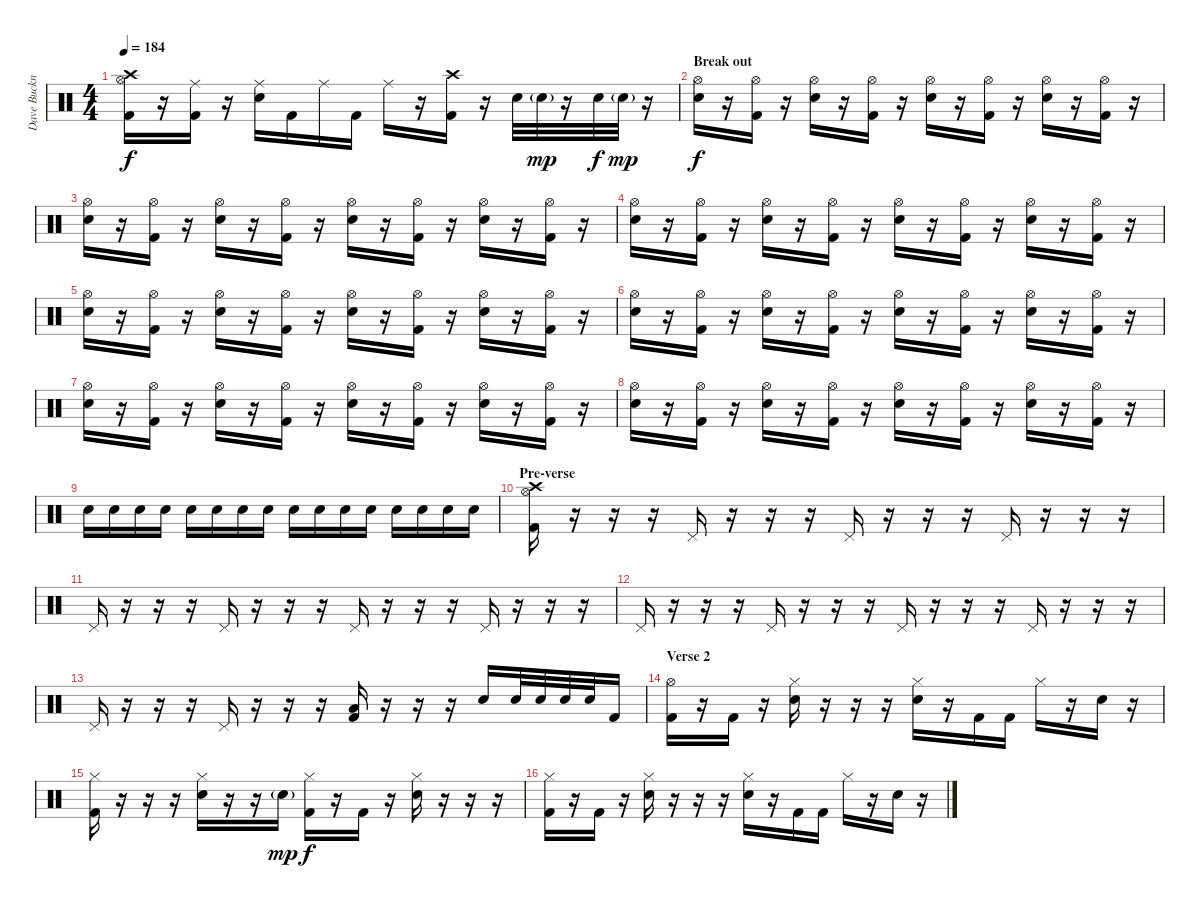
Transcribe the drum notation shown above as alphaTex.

\track ("Dave Buckner" "Dave Buckn") {instrument percussion}
\staff {score}
\articulation defaults
\ts (4 4)
\tempo 184
\clef neutral
\ks c
("Crash high (hit)" "Hi-Hat (open)" "Kick (hit) 2").16{dy f} r.16 ("Ride (middle)" "Kick (hit) 2").16 r.16 ("Ride (middle)" "Snare (hit) 2").16 "Kick (hit) 2".16 "Ride (middle)".16 "Kick (hit) 2".16 "Ride (middle)".16 r.16 ("Crash high (hit)" "Kick (hit) 2").16 r.16 "Snare (hit) 2".32 "Snare (hit) 2"{g}.32{dy mp} r.16 "Snare (hit) 2".32{dy f} "Snare (hit) 2"{g}.32{dy mp} r.16 |
\section ("" "Break out")
("Hi-Hat (open)" "Snare (hit) 2").16{dy f} r.16 ("Hi-Hat (open)" "Kick (hit) 2").16 r.16 ("Hi-Hat (open)" "Snare (hit) 2").16 r.16 ("Hi-Hat (open)" "Kick (hit) 2").16 r.16 ("Hi-Hat (open)" "Snare (hit) 2").16 r.16 ("Hi-Hat (open)" "Kick (hit) 2").16 r.16 ("Hi-Hat (open)" "Snare (hit) 2").16 r.16 ("Hi-Hat (open)" "Kick (hit) 2").16 r.16 |
("Hi-Hat (open)" "Snare (hit) 2").16 r.16 ("Hi-Hat (open)" "Kick (hit) 2").16 r.16 ("Hi-Hat (open)" "Snare (hit) 2").16 r.16 ("Hi-Hat (open)" "Kick (hit) 2").16 r.16 ("Hi-Hat (open)" "Snare (hit) 2").16 r.16 ("Hi-Hat (open)" "Kick (hit) 2").16 r.16 ("Hi-Hat (open)" "Snare (hit) 2").16 r.16 ("Hi-Hat (open)" "Kick (hit) 2").16 r.16 |
("Hi-Hat (open)" "Snare (hit) 2").16 r.16 ("Hi-Hat (open)" "Kick (hit) 2").16 r.16 ("Hi-Hat (open)" "Snare (hit) 2").16 r.16 ("Hi-Hat (open)" "Kick (hit) 2").16 r.16 ("Hi-Hat (open)" "Snare (hit) 2").16 r.16 ("Hi-Hat (open)" "Kick (hit) 2").16 r.16 ("Hi-Hat (open)" "Snare (hit) 2").16 r.16 ("Hi-Hat (open)" "Kick (hit) 2").16 r.16 |
("Hi-Hat (open)" "Snare (hit) 2").16 r.16 ("Hi-Hat (open)" "Kick (hit) 2").16 r.16 ("Hi-Hat (open)" "Snare (hit) 2").16 r.16 ("Hi-Hat (open)" "Kick (hit) 2").16 r.16 ("Hi-Hat (open)" "Snare (hit) 2").16 r.16 ("Hi-Hat (open)" "Kick (hit) 2").16 r.16 ("Hi-Hat (open)" "Snare (hit) 2").16 r.16 ("Hi-Hat (open)" "Kick (hit) 2").16 r.16 |
("Hi-Hat (open)" "Snare (hit) 2").16 r.16 ("Hi-Hat (open)" "Kick (hit) 2").16 r.16 ("Hi-Hat (open)" "Snare (hit) 2").16 r.16 ("Hi-Hat (open)" "Kick (hit) 2").16 r.16 ("Hi-Hat (open)" "Snare (hit) 2").16 r.16 ("Hi-Hat (open)" "Kick (hit) 2").16 r.16 ("Hi-Hat (open)" "Snare (hit) 2").16 r.16 ("Hi-Hat (open)" "Kick (hit) 2").16 r.16 |
("Hi-Hat (open)" "Snare (hit) 2").16 r.16 ("Hi-Hat (open)" "Kick (hit) 2").16 r.16 ("Hi-Hat (open)" "Snare (hit) 2").16 r.16 ("Hi-Hat (open)" "Kick (hit) 2").16 r.16 ("Hi-Hat (open)" "Snare (hit) 2").16 r.16 ("Hi-Hat (open)" "Kick (hit) 2").16 r.16 ("Hi-Hat (open)" "Snare (hit) 2").16 r.16 ("Hi-Hat (open)" "Kick (hit) 2").16 r.16 |
("Hi-Hat (open)" "Snare (hit) 2").16 r.16 ("Hi-Hat (open)" "Kick (hit) 2").16 r.16 ("Hi-Hat (open)" "Snare (hit) 2").16 r.16 ("Hi-Hat (open)" "Kick (hit) 2").16 r.16 ("Hi-Hat (open)" "Snare (hit) 2").16 r.16 ("Hi-Hat (open)" "Kick (hit) 2").16 r.16 ("Hi-Hat (open)" "Snare (hit) 2").16 r.16 ("Hi-Hat (open)" "Kick (hit) 2").16 r.16 |
"Snare (hit) 2".16 "Snare (hit) 2".16 "Snare (hit) 2".16 "Snare (hit) 2".16 "Snare (hit) 2".16 "Snare (hit) 2".16 "Snare (hit) 2".16 "Snare (hit) 2".16 "Snare (hit) 2".16 "Snare (hit) 2".16 "Snare (hit) 2".16 "Snare (hit) 2".16 "Snare (hit) 2".16 "Snare (hit) 2".16 "Snare (hit) 2".16 "Snare (hit) 2".16 |
\section ("" "Pre-verse")
("Crash high (hit)" "Hi-Hat (open)" "Kick (hit) 2").16 r.16 r.16 r.16 "Pedal Hi-Hat (hit)".16 r.16 r.16 r.16 "Pedal Hi-Hat (hit)".16 r.16 r.16 r.16 "Pedal Hi-Hat (hit)".16 r.16 r.16 r.16 |
"Pedal Hi-Hat (hit)".16 r.16 r.16 r.16 "Pedal Hi-Hat (hit)".16 r.16 r.16 r.16 "Pedal Hi-Hat (hit)".16 r.16 r.16 r.16 "Pedal Hi-Hat (hit)".16 r.16 r.16 r.16 |
"Pedal Hi-Hat (hit)".16 r.16 r.16 r.16 "Pedal Hi-Hat (hit)".16 r.16 r.16 r.16 "Pedal Hi-Hat (hit)".16 r.16 r.16 r.16 "Pedal Hi-Hat (hit)".16 r.16 r.16 r.16 |
"Pedal Hi-Hat (hit)".16 r.16 r.16 r.16 "Pedal Hi-Hat (hit)".16 r.16 r.16 r.16 ("Low Floor Tom (hit)" "Kick (hit) 2").16 r.16 r.16 r.16 "Snare (hit) 2".16 "Snare (hit) 2".32 "Snare (hit) 2".32 "Snare (hit) 2".32 "Snare (hit) 2".32 "Kick (hit) 2".16 |
\section ("" "Verse 2")
("Hi-Hat (open)" "Kick (hit) 2").16 r.16 "Kick (hit) 2".16 r.16 ("Hi-Hat (closed)" "Snare (hit) 2").16 r.16 r.16 r.16 ("Hi-Hat (closed)" "Snare (hit) 2").16 r.16 "Kick (hit) 2".16 "Kick (hit) 2".16 "Hi-Hat (closed)".16 r.16 "Snare (hit) 2".16 r.16 |
("Hi-Hat (closed)" "Kick (hit) 2").16 r.16 r.16 r.16 ("Hi-Hat (closed)" "Snare (hit) 2").16 r.16 r.16 "Snare (hit) 2"{g}.16{dy mp} ("Hi-Hat (closed)" "Kick (hit) 2").16{dy f} r.16 "Kick (hit) 2".16 r.16 ("Hi-Hat (closed)" "Snare (hit) 2").16 r.16 r.16 r.16 |
("Hi-Hat (closed)" "Kick (hit) 2").16 r.16 "Kick (hit) 2".16 r.16 ("Hi-Hat (closed)" "Snare (hit) 2").16 r.16 r.16 r.16 ("Hi-Hat (closed)" "Snare (hit) 2").16 r.16 "Kick (hit) 2".16 "Kick (hit) 2".16 "Hi-Hat (closed)".16 r.16 "Snare (hit) 2".16 r.16
